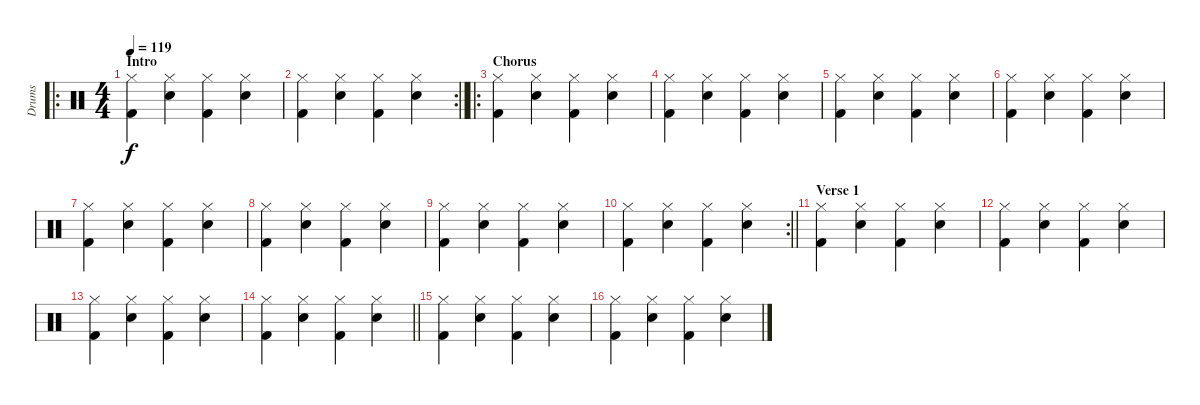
\track ("Drums" "Drums") {instrument percussion}
\staff {score}
\articulation defaults
\ro
\ts (4 4)
\section ("" "Intro")
\tempo 119
\clef neutral
\ks c
("Hi-Hat (closed)" "Kick (hit) 2").4{dy f} ("Hi-Hat (closed)" "Hand Clap (hit)").4 ("Hi-Hat (closed)" "Kick (hit) 2").4 ("Hi-Hat (closed)" "Hand Clap (hit)").4 |
\rc 2
\barLineRight lightlight
("Hi-Hat (closed)" "Kick (hit) 2").4 ("Hi-Hat (closed)" "Hand Clap (hit)").4 ("Hi-Hat (closed)" "Kick (hit) 2").4 ("Hi-Hat (closed)" "Hand Clap (hit)").4 |
\ro
\section ("" "Chorus")
("Hi-Hat (closed)" "Kick (hit) 2").4 ("Hi-Hat (closed)" "Hand Clap (hit)").4 ("Hi-Hat (closed)" "Kick (hit) 2").4 ("Hi-Hat (closed)" "Hand Clap (hit)").4 |
("Hi-Hat (closed)" "Kick (hit) 2").4 ("Hi-Hat (closed)" "Hand Clap (hit)").4 ("Hi-Hat (closed)" "Kick (hit) 2").4 ("Hi-Hat (closed)" "Hand Clap (hit)").4 |
("Hi-Hat (closed)" "Kick (hit) 2").4 ("Hi-Hat (closed)" "Hand Clap (hit)").4 ("Hi-Hat (closed)" "Kick (hit) 2").4 ("Hi-Hat (closed)" "Hand Clap (hit)").4 |
("Hi-Hat (closed)" "Kick (hit) 2").4 ("Hi-Hat (closed)" "Hand Clap (hit)").4 ("Hi-Hat (closed)" "Kick (hit) 2").4 ("Hi-Hat (closed)" "Hand Clap (hit)").4 |
("Hi-Hat (closed)" "Kick (hit) 2").4 ("Hi-Hat (closed)" "Hand Clap (hit)").4 ("Hi-Hat (closed)" "Kick (hit) 2").4 ("Hi-Hat (closed)" "Hand Clap (hit)").4 |
("Hi-Hat (closed)" "Kick (hit) 2").4 ("Hi-Hat (closed)" "Hand Clap (hit)").4 ("Hi-Hat (closed)" "Kick (hit) 2").4 ("Hi-Hat (closed)" "Hand Clap (hit)").4 |
("Hi-Hat (closed)" "Kick (hit) 2").4 ("Hi-Hat (closed)" "Hand Clap (hit)").4 ("Hi-Hat (closed)" "Kick (hit) 2").4 ("Hi-Hat (closed)" "Hand Clap (hit)").4 |
\rc 2
\barLineRight lightlight
("Hi-Hat (closed)" "Kick (hit) 2").4 ("Hi-Hat (closed)" "Hand Clap (hit)").4 ("Hi-Hat (closed)" "Kick (hit) 2").4 ("Hi-Hat (closed)" "Hand Clap (hit)").4 |
\section ("" "Verse 1")
("Hi-Hat (closed)" "Kick (hit) 2").4 ("Hi-Hat (closed)" "Hand Clap (hit)").4 ("Hi-Hat (closed)" "Kick (hit) 2").4 ("Hi-Hat (closed)" "Hand Clap (hit)").4 |
("Hi-Hat (closed)" "Kick (hit) 2").4 ("Hi-Hat (closed)" "Hand Clap (hit)").4 ("Hi-Hat (closed)" "Kick (hit) 2").4 ("Hi-Hat (closed)" "Hand Clap (hit)").4 |
("Hi-Hat (closed)" "Kick (hit) 2").4 ("Hi-Hat (closed)" "Hand Clap (hit)").4 ("Hi-Hat (closed)" "Kick (hit) 2").4 ("Hi-Hat (closed)" "Hand Clap (hit)").4 |
\barLineRight lightlight
("Hi-Hat (closed)" "Kick (hit) 2").4 ("Hi-Hat (closed)" "Hand Clap (hit)").4 ("Hi-Hat (closed)" "Kick (hit) 2").4 ("Hi-Hat (closed)" "Hand Clap (hit)").4 |
("Hi-Hat (closed)" "Kick (hit) 2").4 ("Hi-Hat (closed)" "Hand Clap (hit)").4 ("Hi-Hat (closed)" "Kick (hit) 2").4 ("Hi-Hat (closed)" "Hand Clap (hit)").4 |
("Hi-Hat (closed)" "Kick (hit) 2").4 ("Hi-Hat (closed)" "Hand Clap (hit)").4 ("Hi-Hat (closed)" "Kick (hit) 2").4 ("Hi-Hat (closed)" "Hand Clap (hit)").4
